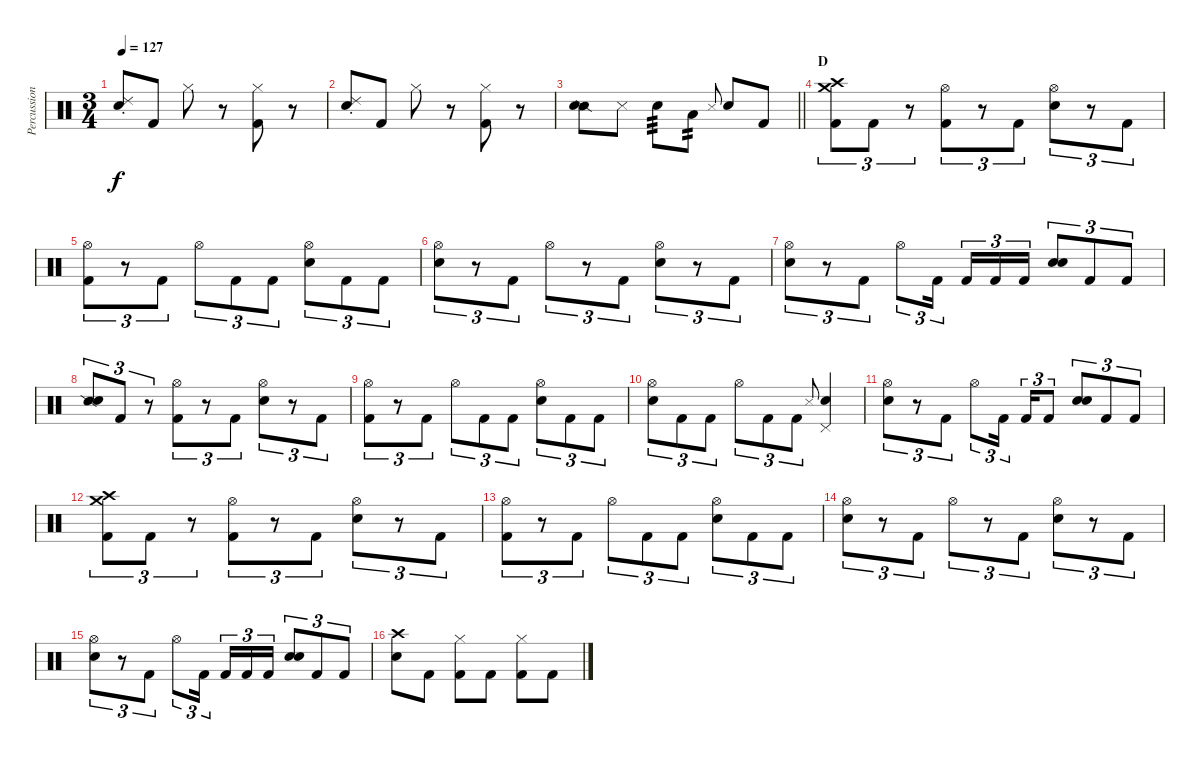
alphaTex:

\track ("Percussion" "Percussion") {instrument percussion}
\staff {score}
\articulation defaults
\ts (3 4)
\tempo 127
\clef neutral
\ks c
("Ride (choke) 2" "Snare (hit) 2").8{dy f} "Kick (hit) 2".8 "Hi-Hat (closed)".8 r.8 ("Hi-Hat (closed)" "Kick (hit) 2").8 r.8 |
("Ride (choke) 2" "Snare (hit) 2").8 "Kick (hit) 2".8 "Hi-Hat (closed)".8 r.8 ("Hi-Hat (closed)" "Kick (hit) 2").8 r.8 |
\barLineRight lightlight
("Snare (side stick) 2" "Snare (hit) 2").8 "Metronome (hit)".8 "Snare (hit) 2".8{tp 3} "Low Tom (hit)".8{tp 2} "Metronome (hit)".8{gr onbeat} "Snare (hit) 2".8 "Kick (hit) 2".8 |
\section ("" "D")
("Crash high (hit)" "Crash medium (hit)" "Kick (hit) 2").8{tu (3 2)} "Kick (hit) 2".8{tu (3 2)} r.8{tu (3 2)} ("Hi-Hat (open)" "Kick (hit) 2").8{tu (3 2)} r.8{tu (3 2)} "Kick (hit) 2".8{tu (3 2)} ("Hi-Hat (open)" "Snare (hit) 2").8{tu (3 2)} r.8{tu (3 2)} "Kick (hit) 2".8{tu (3 2)} |
("Hi-Hat (open)" "Kick (hit) 2").8{tu (3 2)} r.8{tu (3 2)} "Kick (hit) 2".8{tu (3 2)} "Hi-Hat (open)".8{tu (3 2)} "Kick (hit) 2".8{tu (3 2)} "Kick (hit) 2".8{tu (3 2)} ("Hi-Hat (open)" "Snare (hit) 2").8{tu (3 2)} "Kick (hit) 2".8{tu (3 2)} "Kick (hit) 2".8{tu (3 2)} |
("Hi-Hat (open)" "Snare (hit) 2").8{tu (3 2)} r.8{tu (3 2)} "Kick (hit) 2".8{tu (3 2)} "Hi-Hat (open)".8{tu (3 2)} r.8{tu (3 2)} "Kick (hit) 2".8{tu (3 2)} ("Hi-Hat (open)" "Snare (hit) 2").8{tu (3 2)} r.8{tu (3 2)} "Kick (hit) 2".8{tu (3 2)} |
("Hi-Hat (open)" "Snare (hit) 2").8{tu (3 2)} r.8{tu (3 2)} "Kick (hit) 2".8{tu (3 2)} "Hi-Hat (open)".8{tu (3 2)} "Kick (hit) 2".16{tu (3 2) beam splitsecondary} "Kick (hit) 2".16{tu (3 2)} "Kick (hit) 2".16{tu (3 2)} "Kick (hit) 2".16{tu (3 2)} ("Snare (hit)" "Snare (hit) 2").8{tu (3 2)} "Kick (hit) 2".8{tu (3 2)} "Kick (hit) 2".8{tu (3 2)} |
("Snare (side stick) 2" "Snare (hit) 2").8{tu (3 2)} "Kick (hit) 2".8{tu (3 2)} r.8{tu (3 2)} ("Hi-Hat (open)" "Kick (hit) 2").8{tu (3 2)} r.8{tu (3 2)} "Kick (hit) 2".8{tu (3 2)} ("Hi-Hat (open)" "Snare (hit) 2").8{tu (3 2)} r.8{tu (3 2)} "Kick (hit) 2".8{tu (3 2)} |
("Hi-Hat (open)" "Kick (hit) 2").8{tu (3 2)} r.8{tu (3 2)} "Kick (hit) 2".8{tu (3 2)} "Hi-Hat (open)".8{tu (3 2)} "Kick (hit) 2".8{tu (3 2)} "Kick (hit) 2".8{tu (3 2)} ("Hi-Hat (open)" "Snare (hit) 2").8{tu (3 2)} "Kick (hit) 2".8{tu (3 2)} "Kick (hit) 2".8{tu (3 2)} |
("Hi-Hat (open)" "Snare (hit) 2").8{tu (3 2)} "Kick (hit) 2".8{tu (3 2)} "Kick (hit) 2".8{tu (3 2)} "Hi-Hat (open)".8{tu (3 2)} "Kick (hit) 2".8{tu (3 2)} "Kick (hit) 2".8{tu (3 2)} "Metronome (hit)".8{gr onbeat} ("Pedal Hi-Hat (hit)" "Snare (hit) 2").4 |
("Hi-Hat (open)" "Snare (hit) 2").8{tu (3 2)} r.8{tu (3 2)} "Kick (hit) 2".8{tu (3 2)} "Hi-Hat (open)".8{tu (3 2)} "Kick (hit) 2".16{tu (3 2) beam splitsecondary} "Kick (hit) 2".16{tu (3 2)} "Kick (hit) 2".8{tu (3 2)} ("Snare (hit)" "Snare (hit) 2").8{tu (3 2)} "Kick (hit) 2".8{tu (3 2)} "Kick (hit) 2".8{tu (3 2)} |
("Crash high (hit)" "Crash medium (hit)" "Kick (hit) 2").8{tu (3 2)} "Kick (hit) 2".8{tu (3 2)} r.8{tu (3 2)} ("Hi-Hat (open)" "Kick (hit) 2").8{tu (3 2)} r.8{tu (3 2)} "Kick (hit) 2".8{tu (3 2)} ("Hi-Hat (open)" "Snare (hit) 2").8{tu (3 2)} r.8{tu (3 2)} "Kick (hit) 2".8{tu (3 2)} |
("Hi-Hat (open)" "Kick (hit) 2").8{tu (3 2)} r.8{tu (3 2)} "Kick (hit) 2".8{tu (3 2)} "Hi-Hat (open)".8{tu (3 2)} "Kick (hit) 2".8{tu (3 2)} "Kick (hit) 2".8{tu (3 2)} ("Hi-Hat (open)" "Snare (hit) 2").8{tu (3 2)} "Kick (hit) 2".8{tu (3 2)} "Kick (hit) 2".8{tu (3 2)} |
("Hi-Hat (open)" "Snare (hit) 2").8{tu (3 2)} r.8{tu (3 2)} "Kick (hit) 2".8{tu (3 2)} "Hi-Hat (open)".8{tu (3 2)} r.8{tu (3 2)} "Kick (hit) 2".8{tu (3 2)} ("Hi-Hat (open)" "Snare (hit) 2").8{tu (3 2)} r.8{tu (3 2)} "Kick (hit) 2".8{tu (3 2)} |
("Hi-Hat (open)" "Snare (hit) 2").8{tu (3 2)} r.8{tu (3 2)} "Kick (hit) 2".8{tu (3 2)} "Hi-Hat (open)".8{tu (3 2)} "Kick (hit) 2".16{tu (3 2) beam splitsecondary} "Kick (hit) 2".16{tu (3 2)} "Kick (hit) 2".16{tu (3 2)} "Kick (hit) 2".16{tu (3 2)} ("Snare (hit)" "Snare (hit) 2").8{tu (3 2)} "Kick (hit) 2".8{tu (3 2)} "Kick (hit) 2".8{tu (3 2)} |
("Crash high (hit)" "Snare (hit) 2").8 "Kick (hit) 2".8 ("Hi-Hat (closed)" "Kick (hit) 2").8 "Kick (hit) 2".8 ("Hi-Hat (closed)" "Kick (hit) 2").8 "Kick (hit) 2".8
